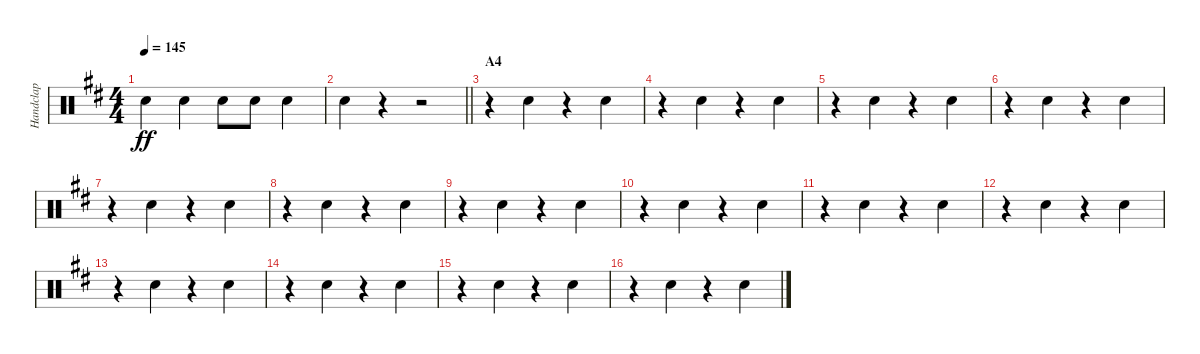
\track ("Handclap" "Handclap") {instrument percussion}
\staff {score}
\articulation defaults
\ts (4 4)
\tempo 145
\clef neutral
\ks d "Hand Clap (hit)".4{dy ff} "Hand Clap (hit)".4 "Hand Clap (hit)".8 "Hand Clap (hit)".8 "Hand Clap (hit)".4
|
\barLineRight lightlight "Hand Clap (hit)".4
r.4 r.2 |
\section ("" "A4")
r.4 "Hand Clap (hit)".4 r.4 "Hand Clap (hit)".4 |
r.4 "Hand Clap (hit)".4 r.4 "Hand Clap (hit)".4 |
r.4 "Hand Clap (hit)".4 r.4 "Hand Clap (hit)".4 |
r.4 "Hand Clap (hit)".4 r.4 "Hand Clap (hit)".4 |
r.4 "Hand Clap (hit)".4 r.4 "Hand Clap (hit)".4 |
r.4 "Hand Clap (hit)".4 r.4 "Hand Clap (hit)".4 |
r.4 "Hand Clap (hit)".4 r.4 "Hand Clap (hit)".4 |
r.4 "Hand Clap (hit)".4 r.4 "Hand Clap (hit)".4 |
r.4 "Hand Clap (hit)".4 r.4 "Hand Clap (hit)".4 |
r.4 "Hand Clap (hit)".4 r.4 "Hand Clap (hit)".4 |
r.4 "Hand Clap (hit)".4 r.4 "Hand Clap (hit)".4 |
r.4 "Hand Clap (hit)".4 r.4 "Hand Clap (hit)".4 |
r.4 "Hand Clap (hit)".4 r.4 "Hand Clap (hit)".4 |
r.4 "Hand Clap (hit)".4 r.4 "Hand Clap (hit)".4
